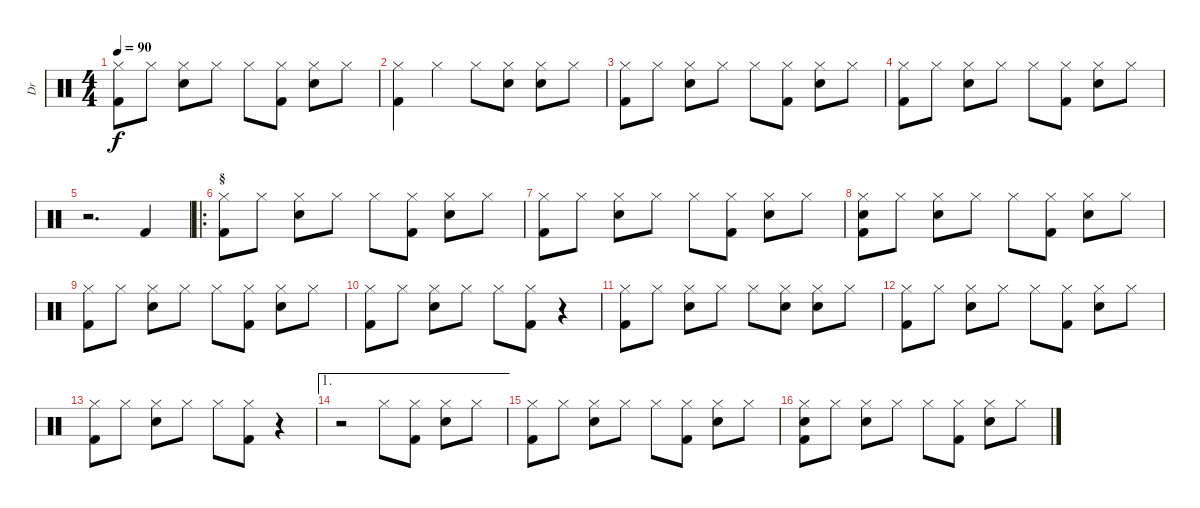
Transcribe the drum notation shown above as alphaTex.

\track ("Dr" "Dr") {instrument percussion}
\staff {score}
\articulation defaults
\ts (4 4)
\tempo 90
\clef neutral
\ks c
("Hi-Hat (closed)" "Kick (hit) 2").8{dy f} "Hi-Hat (closed)".8 ("Hi-Hat (closed)" "Electric Snare (hit)").8 "Hi-Hat (closed)".8 "Hi-Hat (closed)".8 ("Hi-Hat (closed)" "Kick (hit) 2").8 ("Hi-Hat (closed)" "Electric Snare (hit)").8 "Hi-Hat (closed)".8 |
("Hi-Hat (closed)" "Kick (hit) 2").4 "Hi-Hat (closed)".4 "Hi-Hat (closed)".8 ("Hi-Hat (closed)" "Electric Snare (hit)").8 ("Hi-Hat (closed)" "Electric Snare (hit)").8 "Hi-Hat (closed)".8 |
("Hi-Hat (closed)" "Kick (hit) 2").8 "Hi-Hat (closed)".8 ("Hi-Hat (closed)" "Electric Snare (hit)").8 "Hi-Hat (closed)".8 "Hi-Hat (closed)".8 ("Hi-Hat (closed)" "Kick (hit) 2").8 ("Hi-Hat (closed)" "Electric Snare (hit)").8 "Hi-Hat (closed)".8 |
("Hi-Hat (closed)" "Kick (hit) 2").8 "Hi-Hat (closed)".8 ("Hi-Hat (closed)" "Electric Snare (hit)").8 "Hi-Hat (closed)".8 "Hi-Hat (closed)".8 ("Hi-Hat (closed)" "Kick (hit) 2").8 ("Hi-Hat (closed)" "Electric Snare (hit)").8 "Hi-Hat (closed)".8 |
r.2{d} "Kick (hit) 2".4 |
\ro
\section ("" "§")
("Hi-Hat (closed)" "Kick (hit) 2").8 "Hi-Hat (closed)".8 ("Hi-Hat (closed)" "Electric Snare (hit)").8 "Hi-Hat (closed)".8 "Hi-Hat (closed)".8 ("Hi-Hat (closed)" "Kick (hit) 2").8 ("Hi-Hat (closed)" "Electric Snare (hit)").8 "Hi-Hat (closed)".8 |
("Hi-Hat (closed)" "Kick (hit) 2").8 "Hi-Hat (closed)".8 ("Hi-Hat (closed)" "Electric Snare (hit)").8 "Hi-Hat (closed)".8 "Hi-Hat (closed)".8 ("Hi-Hat (closed)" "Kick (hit) 2").8 ("Hi-Hat (closed)" "Electric Snare (hit)").8 "Hi-Hat (closed)".8 |
("Hi-Hat (closed)" "Electric Snare (hit)" "Kick (hit) 2").8 "Hi-Hat (closed)".8 ("Hi-Hat (closed)" "Electric Snare (hit)").8 "Hi-Hat (closed)".8 "Hi-Hat (closed)".8 ("Hi-Hat (closed)" "Kick (hit) 2").8 ("Hi-Hat (closed)" "Electric Snare (hit)").8 "Hi-Hat (closed)".8 |
("Hi-Hat (closed)" "Kick (hit) 2").8 "Hi-Hat (closed)".8 ("Hi-Hat (closed)" "Electric Snare (hit)").8 "Hi-Hat (closed)".8 "Hi-Hat (closed)".8 ("Hi-Hat (closed)" "Kick (hit) 2").8 ("Hi-Hat (closed)" "Electric Snare (hit)").8 "Hi-Hat (closed)".8 |
("Hi-Hat (closed)" "Kick (hit) 2").8 "Hi-Hat (closed)".8 ("Hi-Hat (closed)" "Electric Snare (hit)").8 "Hi-Hat (closed)".8 "Hi-Hat (closed)".8 ("Hi-Hat (closed)" "Kick (hit) 2").8 r.4 |
("Hi-Hat (closed)" "Kick (hit) 2").8 "Hi-Hat (closed)".8 ("Hi-Hat (closed)" "Electric Snare (hit)").8 "Hi-Hat (closed)".8 "Hi-Hat (closed)".8 ("Hi-Hat (closed)" "Electric Snare (hit)").8 ("Hi-Hat (closed)" "Electric Snare (hit)").8 "Hi-Hat (closed)".8 |
("Hi-Hat (closed)" "Kick (hit) 2").8 "Hi-Hat (closed)".8 ("Hi-Hat (closed)" "Electric Snare (hit)").8 "Hi-Hat (closed)".8 "Hi-Hat (closed)".8 ("Hi-Hat (closed)" "Kick (hit) 2").8 ("Hi-Hat (closed)" "Electric Snare (hit)").8 "Hi-Hat (closed)".8 |
("Hi-Hat (closed)" "Kick (hit) 2").8 "Hi-Hat (closed)".8 ("Hi-Hat (closed)" "Electric Snare (hit)").8 "Hi-Hat (closed)".8 "Hi-Hat (closed)".8 ("Hi-Hat (closed)" "Kick (hit) 2").8 r.4 |
\ae 1
r.2 "Hi-Hat (closed)".8 ("Hi-Hat (closed)" "Kick (hit) 2").8 ("Hi-Hat (closed)" "Electric Snare (hit)").8 "Hi-Hat (closed)".8 |
("Hi-Hat (closed)" "Kick (hit) 2").8 "Hi-Hat (closed)".8 ("Hi-Hat (closed)" "Electric Snare (hit)").8 "Hi-Hat (closed)".8 "Hi-Hat (closed)".8 ("Hi-Hat (closed)" "Kick (hit) 2").8 ("Hi-Hat (closed)" "Electric Snare (hit)").8 "Hi-Hat (closed)".8 |
("Hi-Hat (closed)" "Electric Snare (hit)" "Kick (hit) 2").8 "Hi-Hat (closed)".8 ("Hi-Hat (closed)" "Electric Snare (hit)").8 "Hi-Hat (closed)".8 "Hi-Hat (closed)".8 ("Hi-Hat (closed)" "Kick (hit) 2").8 ("Hi-Hat (closed)" "Electric Snare (hit)").8 "Hi-Hat (closed)".8
